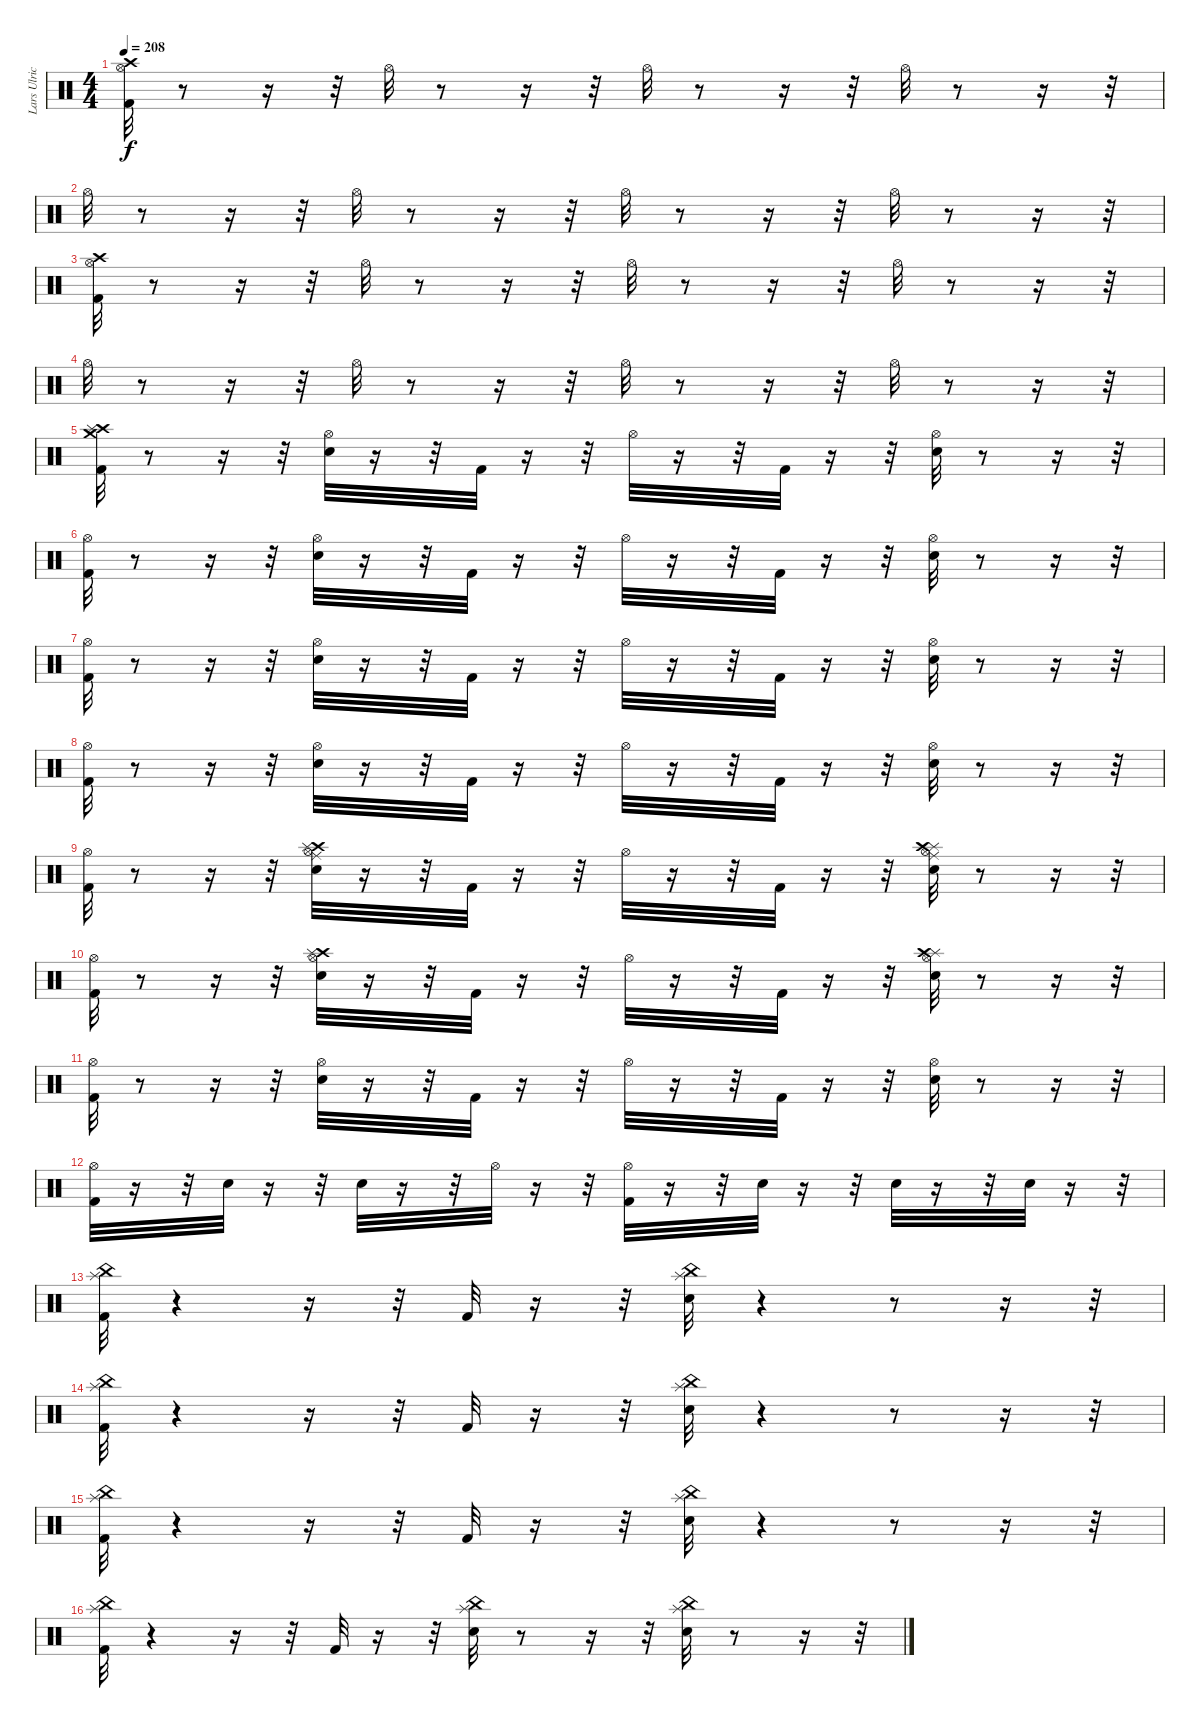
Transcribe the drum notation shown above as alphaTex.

\track ("Lars Ulrich (Drums)" "Lars Ulric") {instrument percussion}
\staff {score}
\articulation defaults
\ts (4 4)
\tempo 208
\clef neutral
\ks c
("Hi-Hat (open)" "Crash high (hit)" "Kick (hit) 2").32{dy f} r.8 r.16 r.32 "Hi-Hat (open)".32 r.8 r.16 r.32 "Hi-Hat (open)".32 r.8 r.16 r.32 "Hi-Hat (open)".32 r.8 r.16 r.32 |
"Hi-Hat (open)".32 r.8 r.16 r.32 "Hi-Hat (open)".32 r.8 r.16 r.32 "Hi-Hat (open)".32 r.8 r.16 r.32 "Hi-Hat (open)".32 r.8 r.16 r.32 |
("Hi-Hat (open)" "Crash high (hit)" "Kick (hit) 2").32 r.8 r.16 r.32 "Hi-Hat (open)".32 r.8 r.16 r.32 "Hi-Hat (open)".32 r.8 r.16 r.32 "Hi-Hat (open)".32 r.8 r.16 r.32 |
"Hi-Hat (open)".32 r.8 r.16 r.32 "Hi-Hat (open)".32 r.8 r.16 r.32 "Hi-Hat (open)".32 r.8 r.16 r.32 "Hi-Hat (open)".32 r.8 r.16 r.32 |
("Kick (hit) 2" "Crash high (hit)" "Crash medium (hit)" "Splash (hit)").32 r.8 r.16 r.32 ("Snare (hit) 2" "Hi-Hat (open)").32 r.16 r.32 "Kick (hit) 2".32 r.16 r.32 "Hi-Hat (open)".32 r.16 r.32 "Kick (hit) 2".32 r.16 r.32 ("Snare (hit) 2" "Hi-Hat (open)").32 r.8 r.16 r.32 |
("Kick (hit) 2" "Hi-Hat (open)").32 r.8 r.16 r.32 ("Snare (hit) 2" "Hi-Hat (open)").32 r.16 r.32 "Kick (hit) 2".32 r.16 r.32 "Hi-Hat (open)".32 r.16 r.32 "Kick (hit) 2".32 r.16 r.32 ("Snare (hit) 2" "Hi-Hat (open)").32 r.8 r.16 r.32 |
("Kick (hit) 2" "Hi-Hat (open)").32 r.8 r.16 r.32 ("Snare (hit) 2" "Hi-Hat (open)").32 r.16 r.32 "Kick (hit) 2".32 r.16 r.32 "Hi-Hat (open)".32 r.16 r.32 "Kick (hit) 2".32 r.16 r.32 ("Snare (hit) 2" "Hi-Hat (open)").32 r.8 r.16 r.32 |
("Kick (hit) 2" "Hi-Hat (open)").32 r.8 r.16 r.32 ("Snare (hit) 2" "Hi-Hat (open)").32 r.16 r.32 "Kick (hit) 2".32 r.16 r.32 "Hi-Hat (open)".32 r.16 r.32 "Kick (hit) 2".32 r.16 r.32 ("Snare (hit) 2" "Hi-Hat (open)").32 r.8 r.16 r.32 |
("Kick (hit) 2" "Hi-Hat (open)").32 r.8 r.16 r.32 ("Ride (middle)" "Crash high (hit)" "Splash (hit)" "Snare (hit) 2" "Hi-Hat (open)").32 r.16 r.32 "Kick (hit) 2".32 r.16 r.32 "Hi-Hat (open)".32 r.16 r.32 "Kick (hit) 2".32 r.16 r.32 ("Splash (hit)" "Ride (middle)" "Crash high (hit)" "Snare (hit) 2" "Hi-Hat (open)").32 r.8 r.16 r.32 |
("Kick (hit) 2" "Hi-Hat (open)").32 r.8 r.16 r.32 ("Crash high (hit)" "Splash (hit)" "Snare (hit) 2" "Hi-Hat (open)").32 r.16 r.32 "Kick (hit) 2".32 r.16 r.32 "Hi-Hat (open)".32 r.16 r.32 "Kick (hit) 2".32 r.16 r.32 ("Splash (hit)" "Crash high (hit)" "Snare (hit) 2" "Hi-Hat (open)").32 r.8 r.16 r.32 |
("Kick (hit) 2" "Hi-Hat (open)").32 r.8 r.16 r.32 ("Snare (hit) 2" "Hi-Hat (open)").32 r.16 r.32 "Kick (hit) 2".32 r.16 r.32 "Hi-Hat (open)".32 r.16 r.32 "Kick (hit) 2".32 r.16 r.32 ("Snare (hit) 2" "Hi-Hat (open)").32 r.8 r.16 r.32 |
("Kick (hit) 2" "Hi-Hat (open)").32 r.16 r.32 "Snare (hit) 2".32 r.16 r.32 "Snare (hit) 2".32 r.16 r.32 "Hi-Hat (open)".32 r.16 r.32 ("Kick (hit) 2" "Hi-Hat (open)").32 r.16 r.32 "Snare (hit) 2".32 r.16 r.32 "Snare (hit) 2".32 r.16 r.32 "Snare (hit) 2".32 r.16 r.32 |
("Kick (hit) 2" "China (hit)" "Splash (hit)").32 r.4 r.16 r.32 "Kick (hit) 2".32 r.16 r.32 ("Snare (hit) 2" "China (hit)" "Splash (hit)").32 r.4 r.8 r.16 r.32 |
("Kick (hit) 2" "China (hit)" "Splash (hit)").32 r.4 r.16 r.32 "Kick (hit) 2".32 r.16 r.32 ("Snare (hit) 2" "China (hit)" "Splash (hit)").32 r.4 r.8 r.16 r.32 |
("Kick (hit) 2" "China (hit)" "Splash (hit)").32 r.4 r.16 r.32 "Kick (hit) 2".32 r.16 r.32 ("Snare (hit) 2" "China (hit)" "Splash (hit)").32 r.4 r.8 r.16 r.32 |
("Kick (hit) 2" "China (hit)" "Splash (hit)").32 r.4 r.16 r.32 "Kick (hit) 2".32 r.16 r.32 ("Snare (hit) 2" "China (hit)" "Splash (hit)").32 r.8 r.16 r.32 ("Splash (hit)" "China (hit)" "Snare (hit) 2").32 r.8 r.16 r.32
